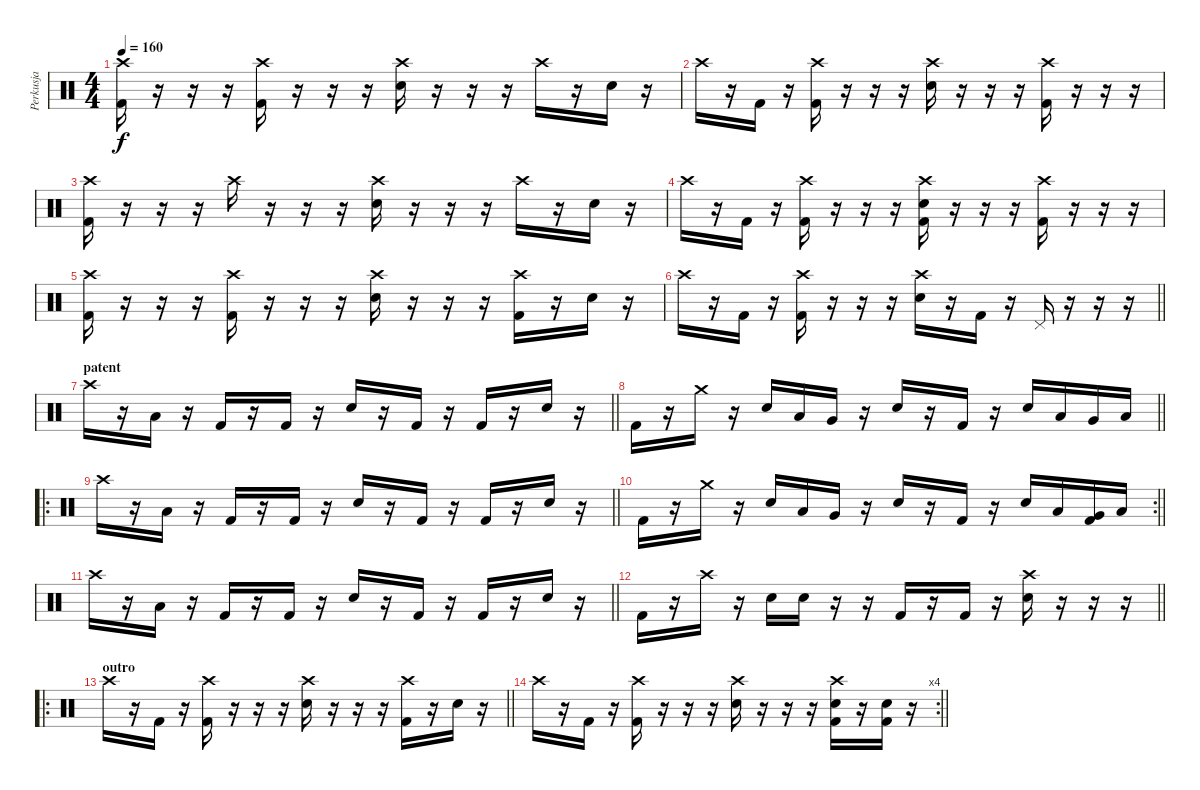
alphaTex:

\track ("Perkusja" "Perkusja") {instrument percussion}
\staff {score}
\articulation defaults
\ts (4 4)
\tempo 160
\clef neutral
\ks c
("Crash high (hit)" "Kick (hit) 2").16{dy f} r.16 r.16 r.16 ("Crash high (hit)" "Kick (hit) 2").16 r.16 r.16 r.16 ("Crash high (hit)" "Electric Snare (hit)").16 r.16 r.16 r.16 "Crash high (hit)".16 r.16 "Electric Snare (hit)".16 r.16 |
"Crash high (hit)".16 r.16 "Kick (hit) 2".16 r.16 ("Crash high (hit)" "Kick (hit) 2").16 r.16 r.16 r.16 ("Crash high (hit)" "Electric Snare (hit)").16 r.16 r.16 r.16 ("Crash high (hit)" "Kick (hit) 2").16 r.16 r.16 r.16 |
("Crash high (hit)" "Kick (hit) 2").16 r.16 r.16 r.16 "Crash high (hit)".16 r.16 r.16 r.16 ("Crash high (hit)" "Electric Snare (hit)").16 r.16 r.16 r.16 "Crash high (hit)".16 r.16 "Electric Snare (hit)".16 r.16 |
"Crash high (hit)".16 r.16 "Kick (hit) 2".16 r.16 ("Crash high (hit)" "Kick (hit) 2").16 r.16 r.16 r.16 ("Crash high (hit)" "Electric Snare (hit)" "Kick (hit) 2").16 r.16 r.16 r.16 ("Crash high (hit)" "Kick (hit) 2").16 r.16 r.16 r.16 |
("Crash high (hit)" "Kick (hit) 2").16 r.16 r.16 r.16 ("Crash high (hit)" "Kick (hit) 2").16 r.16 r.16 r.16 ("Crash high (hit)" "Electric Snare (hit)").16 r.16 r.16 r.16 ("Crash high (hit)" "Kick (hit) 2").16 r.16 "Electric Snare (hit)".16 r.16 |
\barLineRight lightlight "Crash high (hit)".16
r.16 "Kick (hit) 2".16 r.16 ("Crash high (hit)" "Kick (hit) 2").16 r.16 r.16 r.16 ("Crash high (hit)" "Electric Snare (hit)").16 r.16 "Kick (hit) 2".16 r.16 "Pedal Hi-Hat (hit)".16 r.16 r.16 r.16 |
\section ("" "patent")
\barLineRight lightlight "Crash high (hit)".16
r.16 "Low Floor Tom (hit)".16 r.16 "Kick (hit) 2".16 r.16 "Kick (hit) 2".16 r.16 "Electric Snare (hit)".16 r.16 "Kick (hit) 2".16 r.16 "Kick (hit) 2".16 r.16 "Electric Snare (hit)".16 r.16 |
\barLineRight lightlight "Kick (hit) 2".16
r.16 "Crash medium (hit)".16 r.16 "Electric Snare (hit)".16 "Low Tom (hit)".16 "Very Low Tom (hit)".16 r.16 "Electric Snare (hit)".16 r.16 "Kick (hit) 2".16 r.16 "Electric Snare (hit)".16 "Low Tom (hit)".16 "Very Low Tom (hit)".16 "Low Floor Tom (hit)".16 |
\ro
\barLineRight lightlight "Crash high (hit)".16
r.16 "Low Floor Tom (hit)".16 r.16 "Kick (hit) 2".16 r.16 "Kick (hit) 2".16 r.16 "Electric Snare (hit)".16 r.16 "Kick (hit) 2".16 r.16 "Kick (hit) 2".16 r.16 "Electric Snare (hit)".16 r.16 |
\rc 2
\barLineRight lightlight "Kick (hit) 2".16
r.16 "Crash medium (hit)".16 r.16 "Electric Snare (hit)".16 "Low Tom (hit)".16 "Very Low Tom (hit)".16 r.16 "Electric Snare (hit)".16 r.16 "Kick (hit) 2".16 r.16 "Electric Snare (hit)".16 "Low Tom (hit)".16 ("Very Low Tom (hit)" "Kick (hit) 2").16 "Low Floor Tom (hit)".16 |
\barLineRight lightlight "Crash high (hit)".16
r.16 "Low Floor Tom (hit)".16 r.16 "Kick (hit) 2".16 r.16 "Kick (hit) 2".16 r.16 "Electric Snare (hit)".16 r.16 "Kick (hit) 2".16 r.16 "Kick (hit) 2".16 r.16 "Electric Snare (hit)".16 r.16 |
\barLineRight lightlight "Kick (hit) 2".16
r.16 "Crash high (hit)".16 r.16 "Electric Snare (hit)".16 "Electric Snare (hit)".16 r.16 r.16 "Kick (hit) 2".16 r.16 "Kick (hit) 2".16 r.16 ("Crash high (hit)" "Electric Snare (hit)").16 r.16 r.16 r.16 |
\ro
\section ("" "outro")
\barLineRight lightlight "Crash high (hit)".16
r.16 "Kick (hit) 2".16 r.16 ("Crash high (hit)" "Kick (hit) 2").16 r.16 r.16 r.16 ("Crash high (hit)" "Electric Snare (hit)").16 r.16 r.16 r.16 ("Crash high (hit)" "Kick (hit) 2").16 r.16 "Electric Snare (hit)".16 r.16 |
\rc 4
\barLineRight lightlight "Crash high (hit)".16
r.16 "Kick (hit) 2".16 r.16 ("Crash high (hit)" "Kick (hit) 2").16 r.16 r.16 r.16 ("Crash high (hit)" "Electric Snare (hit)").16 r.16 r.16 r.16 ("Crash high (hit)" "Electric Snare (hit)" "Kick (hit) 2").16 r.16 ("Electric Snare (hit)" "Kick (hit) 2").16 r.16
